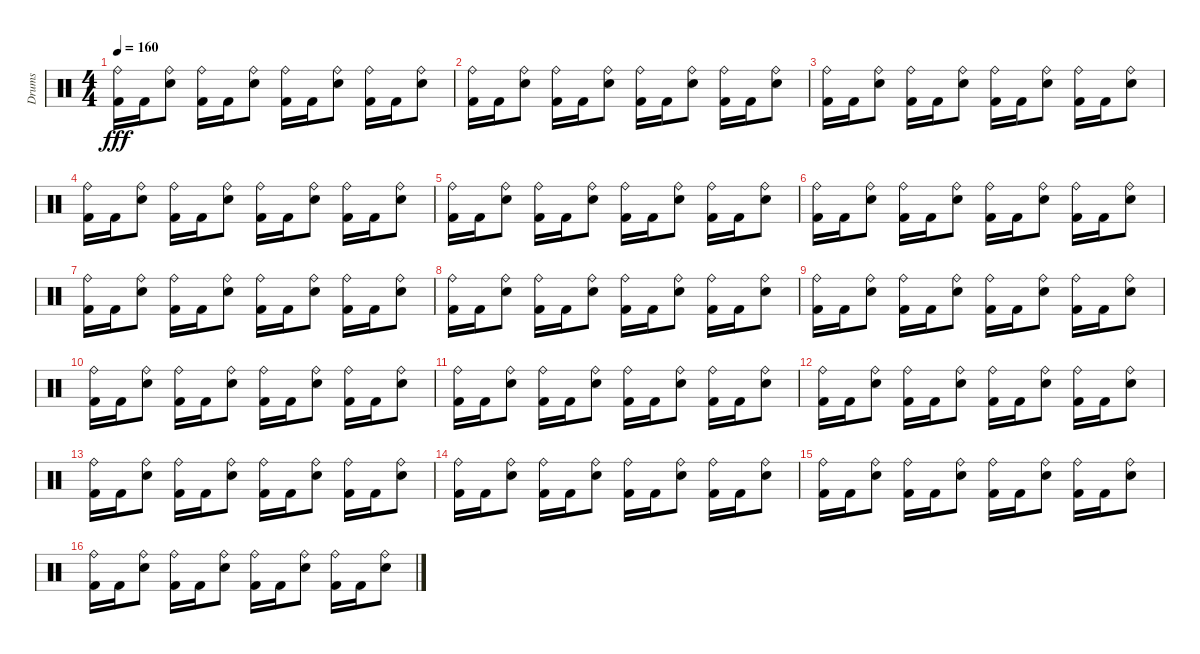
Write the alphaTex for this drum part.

\track ("Drums" "Drums") {instrument percussion}
\staff {score}
\articulation defaults
\ts (4 4)
\tempo 160
\clef neutral
\ks c
("Kick (hit) 2" "Ride (bell)").16{dy fff} "Kick (hit) 2".16 ("Electric Snare (hit)" "Ride (bell)").8 ("Kick (hit) 2" "Ride (bell)").16 "Kick (hit) 2".16 ("Electric Snare (hit)" "Ride (bell)").8 ("Kick (hit) 2" "Ride (bell)").16 "Kick (hit) 2".16 ("Electric Snare (hit)" "Ride (bell)").8 ("Kick (hit) 2" "Ride (bell)").16 "Kick (hit) 2".16 ("Electric Snare (hit)" "Ride (bell)").8 |
("Kick (hit) 2" "Ride (bell)").16 "Kick (hit) 2".16 ("Electric Snare (hit)" "Ride (bell)").8 ("Kick (hit) 2" "Ride (bell)").16 "Kick (hit) 2".16 ("Electric Snare (hit)" "Ride (bell)").8 ("Kick (hit) 2" "Ride (bell)").16 "Kick (hit) 2".16 ("Electric Snare (hit)" "Ride (bell)").8 ("Kick (hit) 2" "Ride (bell)").16 "Kick (hit) 2".16 ("Electric Snare (hit)" "Ride (bell)").8 |
("Kick (hit) 2" "Ride (bell)").16 "Kick (hit) 2".16 ("Electric Snare (hit)" "Ride (bell)").8 ("Kick (hit) 2" "Ride (bell)").16 "Kick (hit) 2".16 ("Electric Snare (hit)" "Ride (bell)").8 ("Kick (hit) 2" "Ride (bell)").16 "Kick (hit) 2".16 ("Electric Snare (hit)" "Ride (bell)").8 ("Kick (hit) 2" "Ride (bell)").16 "Kick (hit) 2".16 ("Electric Snare (hit)" "Ride (bell)").8 |
("Kick (hit) 2" "Ride (bell)").16 "Kick (hit) 2".16 ("Electric Snare (hit)" "Ride (bell)").8 ("Kick (hit) 2" "Ride (bell)").16 "Kick (hit) 2".16 ("Electric Snare (hit)" "Ride (bell)").8 ("Kick (hit) 2" "Ride (bell)").16 "Kick (hit) 2".16 ("Electric Snare (hit)" "Ride (bell)").8 ("Kick (hit) 2" "Ride (bell)").16 "Kick (hit) 2".16 ("Electric Snare (hit)" "Ride (bell)").8 |
("Kick (hit) 2" "Ride (bell)").16 "Kick (hit) 2".16 ("Electric Snare (hit)" "Ride (bell)").8 ("Kick (hit) 2" "Ride (bell)").16 "Kick (hit) 2".16 ("Electric Snare (hit)" "Ride (bell)").8 ("Kick (hit) 2" "Ride (bell)").16 "Kick (hit) 2".16 ("Electric Snare (hit)" "Ride (bell)").8 ("Kick (hit) 2" "Ride (bell)").16 "Kick (hit) 2".16 ("Electric Snare (hit)" "Ride (bell)").8 |
("Kick (hit) 2" "Ride (bell)").16 "Kick (hit) 2".16 ("Electric Snare (hit)" "Ride (bell)").8 ("Kick (hit) 2" "Ride (bell)").16 "Kick (hit) 2".16 ("Electric Snare (hit)" "Ride (bell)").8 ("Kick (hit) 2" "Ride (bell)").16 "Kick (hit) 2".16 ("Electric Snare (hit)" "Ride (bell)").8 ("Kick (hit) 2" "Ride (bell)").16 "Kick (hit) 2".16 ("Electric Snare (hit)" "Ride (bell)").8 |
("Kick (hit) 2" "Ride (bell)").16 "Kick (hit) 2".16 ("Electric Snare (hit)" "Ride (bell)").8 ("Kick (hit) 2" "Ride (bell)").16 "Kick (hit) 2".16 ("Electric Snare (hit)" "Ride (bell)").8 ("Kick (hit) 2" "Ride (bell)").16 "Kick (hit) 2".16 ("Electric Snare (hit)" "Ride (bell)").8 ("Kick (hit) 2" "Ride (bell)").16 "Kick (hit) 2".16 ("Electric Snare (hit)" "Ride (bell)").8 |
("Kick (hit) 2" "Ride (bell)").16 "Kick (hit) 2".16 ("Electric Snare (hit)" "Ride (bell)").8 ("Kick (hit) 2" "Ride (bell)").16 "Kick (hit) 2".16 ("Electric Snare (hit)" "Ride (bell)").8 ("Kick (hit) 2" "Ride (bell)").16 "Kick (hit) 2".16 ("Electric Snare (hit)" "Ride (bell)").8 ("Kick (hit) 2" "Ride (bell)").16 "Kick (hit) 2".16 ("Electric Snare (hit)" "Ride (bell)").8 |
("Kick (hit) 2" "Ride (bell)").16 "Kick (hit) 2".16 ("Electric Snare (hit)" "Ride (bell)").8 ("Kick (hit) 2" "Ride (bell)").16 "Kick (hit) 2".16 ("Electric Snare (hit)" "Ride (bell)").8 ("Kick (hit) 2" "Ride (bell)").16 "Kick (hit) 2".16 ("Electric Snare (hit)" "Ride (bell)").8 ("Kick (hit) 2" "Ride (bell)").16 "Kick (hit) 2".16 ("Electric Snare (hit)" "Ride (bell)").8 |
("Kick (hit) 2" "Ride (bell)").16 "Kick (hit) 2".16 ("Electric Snare (hit)" "Ride (bell)").8 ("Kick (hit) 2" "Ride (bell)").16 "Kick (hit) 2".16 ("Electric Snare (hit)" "Ride (bell)").8 ("Kick (hit) 2" "Ride (bell)").16 "Kick (hit) 2".16 ("Electric Snare (hit)" "Ride (bell)").8 ("Kick (hit) 2" "Ride (bell)").16 "Kick (hit) 2".16 ("Electric Snare (hit)" "Ride (bell)").8 |
("Kick (hit) 2" "Ride (bell)").16 "Kick (hit) 2".16 ("Electric Snare (hit)" "Ride (bell)").8 ("Kick (hit) 2" "Ride (bell)").16 "Kick (hit) 2".16 ("Electric Snare (hit)" "Ride (bell)").8 ("Kick (hit) 2" "Ride (bell)").16 "Kick (hit) 2".16 ("Electric Snare (hit)" "Ride (bell)").8 ("Kick (hit) 2" "Ride (bell)").16 "Kick (hit) 2".16 ("Electric Snare (hit)" "Ride (bell)").8 |
("Kick (hit) 2" "Ride (bell)").16 "Kick (hit) 2".16 ("Electric Snare (hit)" "Ride (bell)").8 ("Kick (hit) 2" "Ride (bell)").16 "Kick (hit) 2".16 ("Electric Snare (hit)" "Ride (bell)").8 ("Kick (hit) 2" "Ride (bell)").16 "Kick (hit) 2".16 ("Electric Snare (hit)" "Ride (bell)").8 ("Kick (hit) 2" "Ride (bell)").16 "Kick (hit) 2".16 ("Electric Snare (hit)" "Ride (bell)").8 |
("Kick (hit) 2" "Ride (bell)").16 "Kick (hit) 2".16 ("Electric Snare (hit)" "Ride (bell)").8 ("Kick (hit) 2" "Ride (bell)").16 "Kick (hit) 2".16 ("Electric Snare (hit)" "Ride (bell)").8 ("Kick (hit) 2" "Ride (bell)").16 "Kick (hit) 2".16 ("Electric Snare (hit)" "Ride (bell)").8 ("Kick (hit) 2" "Ride (bell)").16 "Kick (hit) 2".16 ("Electric Snare (hit)" "Ride (bell)").8 |
("Kick (hit) 2" "Ride (bell)").16 "Kick (hit) 2".16 ("Electric Snare (hit)" "Ride (bell)").8 ("Kick (hit) 2" "Ride (bell)").16 "Kick (hit) 2".16 ("Electric Snare (hit)" "Ride (bell)").8 ("Kick (hit) 2" "Ride (bell)").16 "Kick (hit) 2".16 ("Electric Snare (hit)" "Ride (bell)").8 ("Kick (hit) 2" "Ride (bell)").16 "Kick (hit) 2".16 ("Electric Snare (hit)" "Ride (bell)").8 |
("Kick (hit) 2" "Ride (bell)").16 "Kick (hit) 2".16 ("Electric Snare (hit)" "Ride (bell)").8 ("Kick (hit) 2" "Ride (bell)").16 "Kick (hit) 2".16 ("Electric Snare (hit)" "Ride (bell)").8 ("Kick (hit) 2" "Ride (bell)").16 "Kick (hit) 2".16 ("Electric Snare (hit)" "Ride (bell)").8 ("Kick (hit) 2" "Ride (bell)").16 "Kick (hit) 2".16 ("Electric Snare (hit)" "Ride (bell)").8 |
("Kick (hit) 2" "Ride (bell)").16 "Kick (hit) 2".16 ("Electric Snare (hit)" "Ride (bell)").8 ("Kick (hit) 2" "Ride (bell)").16 "Kick (hit) 2".16 ("Electric Snare (hit)" "Ride (bell)").8 ("Kick (hit) 2" "Ride (bell)").16 "Kick (hit) 2".16 ("Electric Snare (hit)" "Ride (bell)").8 ("Kick (hit) 2" "Ride (bell)").16 "Kick (hit) 2".16 ("Electric Snare (hit)" "Ride (bell)").8
